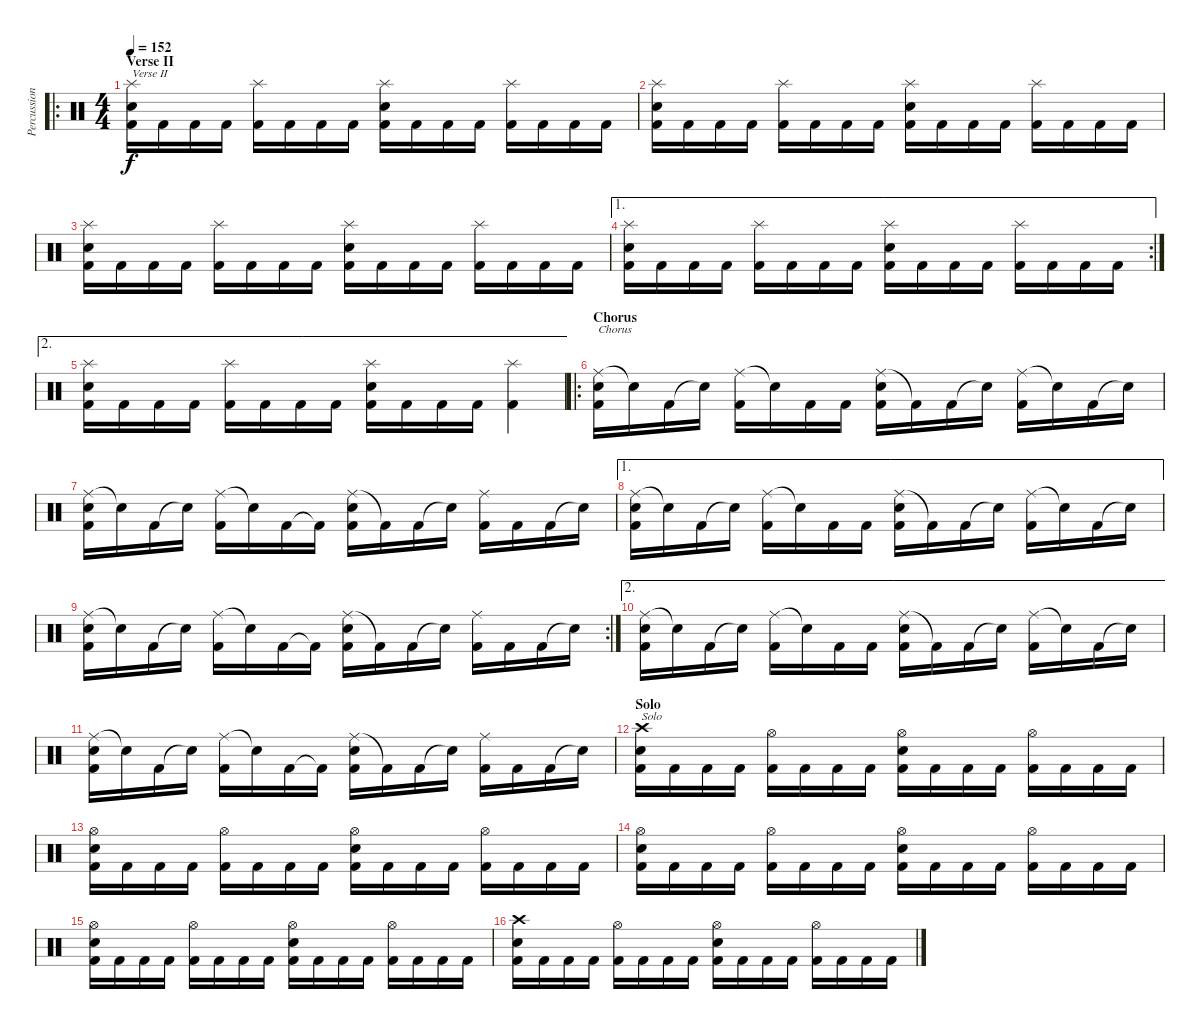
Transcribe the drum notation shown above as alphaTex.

\track ("Percussion" "Percussion") {instrument percussion}
\staff {score}
\articulation defaults
\ro
\ts (4 4)
\section ("" "Verse II")
\tempo 152
\clef neutral
\ks c
("Splash (hit)" "Electric Snare (hit)" "Kick (hit) 2").16{txt "Verse II" dy f} "Kick (hit) 2".16 "Kick (hit) 2".16 "Kick (hit) 2".16 ("Splash (hit)" "Kick (hit) 2").16 "Kick (hit) 2".16 "Kick (hit) 2".16 "Kick (hit) 2".16 ("Splash (hit)" "Electric Snare (hit)" "Kick (hit) 2").16 "Kick (hit) 2".16 "Kick (hit) 2".16 "Kick (hit) 2".16 ("Splash (hit)" "Kick (hit) 2").16 "Kick (hit) 2".16 "Kick (hit) 2".16 "Kick (hit) 2".16 |
("Splash (hit)" "Electric Snare (hit)" "Kick (hit) 2").16 "Kick (hit) 2".16 "Kick (hit) 2".16 "Kick (hit) 2".16 ("Splash (hit)" "Kick (hit) 2").16 "Kick (hit) 2".16 "Kick (hit) 2".16 "Kick (hit) 2".16 ("Splash (hit)" "Electric Snare (hit)" "Kick (hit) 2").16 "Kick (hit) 2".16 "Kick (hit) 2".16 "Kick (hit) 2".16 ("Splash (hit)" "Kick (hit) 2").16 "Kick (hit) 2".16 "Kick (hit) 2".16 "Kick (hit) 2".16 |
("Splash (hit)" "Electric Snare (hit)" "Kick (hit) 2").16 "Kick (hit) 2".16 "Kick (hit) 2".16 "Kick (hit) 2".16 ("Splash (hit)" "Kick (hit) 2").16 "Kick (hit) 2".16 "Kick (hit) 2".16 "Kick (hit) 2".16 ("Splash (hit)" "Electric Snare (hit)" "Kick (hit) 2").16 "Kick (hit) 2".16 "Kick (hit) 2".16 "Kick (hit) 2".16 ("Splash (hit)" "Kick (hit) 2").16 "Kick (hit) 2".16 "Kick (hit) 2".16 "Kick (hit) 2".16 |
\ae 1
\rc 2
("Splash (hit)" "Electric Snare (hit)" "Kick (hit) 2").16 "Kick (hit) 2".16 "Kick (hit) 2".16 "Kick (hit) 2".16 ("Splash (hit)" "Kick (hit) 2").16 "Kick (hit) 2".16 "Kick (hit) 2".16 "Kick (hit) 2".16 ("Splash (hit)" "Electric Snare (hit)" "Kick (hit) 2").16 "Kick (hit) 2".16 "Kick (hit) 2".16 "Kick (hit) 2".16 ("Splash (hit)" "Kick (hit) 2").16 "Kick (hit) 2".16 "Kick (hit) 2".16 "Kick (hit) 2".16 |
\ae 2
("Splash (hit)" "Electric Snare (hit)" "Kick (hit) 2").16 "Kick (hit) 2".16 "Kick (hit) 2".16 "Kick (hit) 2".16 ("Splash (hit)" "Kick (hit) 2").16 "Kick (hit) 2".16 "Kick (hit) 2".16 "Kick (hit) 2".16 ("Splash (hit)" "Electric Snare (hit)" "Kick (hit) 2").16 "Kick (hit) 2".16 "Kick (hit) 2".16 "Kick (hit) 2".16 ("Splash (hit)" "Kick (hit) 2").4 |
\ro
\section ("" "Chorus")
("Ride (middle)" "Electric Snare (hit)" "Kick (hit) 2").16{txt "Chorus"} "Snare (hit)"{t}.16 "Kick (hit) 2".16 "Snare (hit)"{t}.16 ("Ride (middle)" "Kick (hit) 2").16 "Snare (hit)"{t}.16 "Kick (hit) 2".16 "Kick (hit) 2".16 ("Ride (middle)" "Electric Snare (hit)" "Kick (hit) 2").16 "Kick (hit) 2"{t}.16 "Kick (hit) 2".16 "Snare (hit)"{t}.16 ("Ride (middle)" "Kick (hit) 2").16 "Snare (hit)"{t}.16 "Kick (hit) 2".16 "Snare (hit)"{t}.16 |
("Ride (middle)" "Electric Snare (hit)" "Kick (hit) 2").16 "Snare (hit)"{t}.16 "Kick (hit) 2".16 "Snare (hit)"{t}.16 ("Ride (middle)" "Kick (hit) 2").16 "Snare (hit)"{t}.16 "Kick (hit) 2".16 "Kick (hit) 2"{t}.16 ("Ride (middle)" "Electric Snare (hit)" "Kick (hit) 2").16 "Kick (hit) 2"{t}.16 "Kick (hit) 2".16 "Snare (hit)"{t}.16 ("Ride (middle)" "Kick (hit) 2").16 "Kick (hit) 2".16 "Kick (hit) 2".16 "Snare (hit)"{t}.16 |
\ae 1
("Ride (middle)" "Electric Snare (hit)" "Kick (hit) 2").16 "Snare (hit)"{t}.16 "Kick (hit) 2".16 "Snare (hit)"{t}.16 ("Ride (middle)" "Kick (hit) 2").16 "Snare (hit)"{t}.16 "Kick (hit) 2".16 "Kick (hit) 2".16 ("Ride (middle)" "Electric Snare (hit)" "Kick (hit) 2").16 "Kick (hit) 2"{t}.16 "Kick (hit) 2".16 "Snare (hit)"{t}.16 ("Ride (middle)" "Kick (hit) 2").16 "Snare (hit)"{t}.16 "Kick (hit) 2".16 "Snare (hit)"{t}.16 |
\rc 2
("Ride (middle)" "Electric Snare (hit)" "Kick (hit) 2").16 "Snare (hit)"{t}.16 "Kick (hit) 2".16 "Snare (hit)"{t}.16 ("Ride (middle)" "Kick (hit) 2").16 "Snare (hit)"{t}.16 "Kick (hit) 2".16 "Kick (hit) 2"{t}.16 ("Ride (middle)" "Electric Snare (hit)" "Kick (hit) 2").16 "Kick (hit) 2"{t}.16 "Kick (hit) 2".16 "Snare (hit)"{t}.16 ("Ride (middle)" "Kick (hit) 2").16 "Kick (hit) 2".16 "Kick (hit) 2".16 "Snare (hit)"{t}.16 |
\ae 2
("Ride (middle)" "Electric Snare (hit)" "Kick (hit) 2").16 "Snare (hit)"{t}.16 "Kick (hit) 2".16 "Snare (hit)"{t}.16 ("Ride (middle)" "Kick (hit) 2").16 "Snare (hit)"{t}.16 "Kick (hit) 2".16 "Kick (hit) 2".16 ("Ride (middle)" "Electric Snare (hit)" "Kick (hit) 2").16 "Kick (hit) 2"{t}.16 "Kick (hit) 2".16 "Snare (hit)"{t}.16 ("Ride (middle)" "Kick (hit) 2").16 "Snare (hit)"{t}.16 "Kick (hit) 2".16 "Snare (hit)"{t}.16 |
("Ride (middle)" "Electric Snare (hit)" "Kick (hit) 2").16 "Snare (hit)"{t}.16 "Kick (hit) 2".16 "Snare (hit)"{t}.16 ("Ride (middle)" "Kick (hit) 2").16 "Snare (hit)"{t}.16 "Kick (hit) 2".16 "Kick (hit) 2"{t}.16 ("Ride (middle)" "Electric Snare (hit)" "Kick (hit) 2").16 "Kick (hit) 2"{t}.16 "Kick (hit) 2".16 "Snare (hit)"{t}.16 ("Ride (middle)" "Kick (hit) 2").16 "Kick (hit) 2".16 "Kick (hit) 2".16 "Snare (hit)"{t}.16 |
\section ("" "Solo")
("Crash high (hit)" "Electric Snare (hit)" "Kick (hit) 2").16{txt "Solo"} "Kick (hit) 2".16 "Kick (hit) 2".16 "Kick (hit) 2".16 ("Hi-Hat (open)" "Kick (hit) 2").16 "Kick (hit) 2".16 "Kick (hit) 2".16 "Kick (hit) 2".16 ("Hi-Hat (open)" "Electric Snare (hit)" "Kick (hit) 2").16 "Kick (hit) 2".16 "Kick (hit) 2".16 "Kick (hit) 2".16 ("Hi-Hat (open)" "Kick (hit) 2").16 "Kick (hit) 2".16 "Kick (hit) 2".16 "Kick (hit) 2".16 |
("Hi-Hat (open)" "Electric Snare (hit)" "Kick (hit) 2").16 "Kick (hit) 2".16 "Kick (hit) 2".16 "Kick (hit) 2".16 ("Hi-Hat (open)" "Kick (hit) 2").16 "Kick (hit) 2".16 "Kick (hit) 2".16 "Kick (hit) 2".16 ("Hi-Hat (open)" "Electric Snare (hit)" "Kick (hit) 2").16 "Kick (hit) 2".16 "Kick (hit) 2".16 "Kick (hit) 2".16 ("Hi-Hat (open)" "Kick (hit) 2").16 "Kick (hit) 2".16 "Kick (hit) 2".16 "Kick (hit) 2".16 |
("Hi-Hat (open)" "Electric Snare (hit)" "Kick (hit) 2").16 "Kick (hit) 2".16 "Kick (hit) 2".16 "Kick (hit) 2".16 ("Hi-Hat (open)" "Kick (hit) 2").16 "Kick (hit) 2".16 "Kick (hit) 2".16 "Kick (hit) 2".16 ("Hi-Hat (open)" "Electric Snare (hit)" "Kick (hit) 2").16 "Kick (hit) 2".16 "Kick (hit) 2".16 "Kick (hit) 2".16 ("Hi-Hat (open)" "Kick (hit) 2").16 "Kick (hit) 2".16 "Kick (hit) 2".16 "Kick (hit) 2".16 |
("Hi-Hat (open)" "Electric Snare (hit)" "Kick (hit) 2").16 "Kick (hit) 2".16 "Kick (hit) 2".16 "Kick (hit) 2".16 ("Hi-Hat (open)" "Kick (hit) 2").16 "Kick (hit) 2".16 "Kick (hit) 2".16 "Kick (hit) 2".16 ("Hi-Hat (open)" "Electric Snare (hit)" "Kick (hit) 2").16 "Kick (hit) 2".16 "Kick (hit) 2".16 "Kick (hit) 2".16 ("Hi-Hat (open)" "Kick (hit) 2").16 "Kick (hit) 2".16 "Kick (hit) 2".16 "Kick (hit) 2".16 |
("Crash high (hit)" "Electric Snare (hit)" "Kick (hit) 2").16 "Kick (hit) 2".16 "Kick (hit) 2".16 "Kick (hit) 2".16 ("Hi-Hat (open)" "Kick (hit) 2").16 "Kick (hit) 2".16 "Kick (hit) 2".16 "Kick (hit) 2".16 ("Hi-Hat (open)" "Electric Snare (hit)" "Kick (hit) 2").16 "Kick (hit) 2".16 "Kick (hit) 2".16 "Kick (hit) 2".16 ("Hi-Hat (open)" "Kick (hit) 2").16 "Kick (hit) 2".16 "Kick (hit) 2".16 "Kick (hit) 2".16
